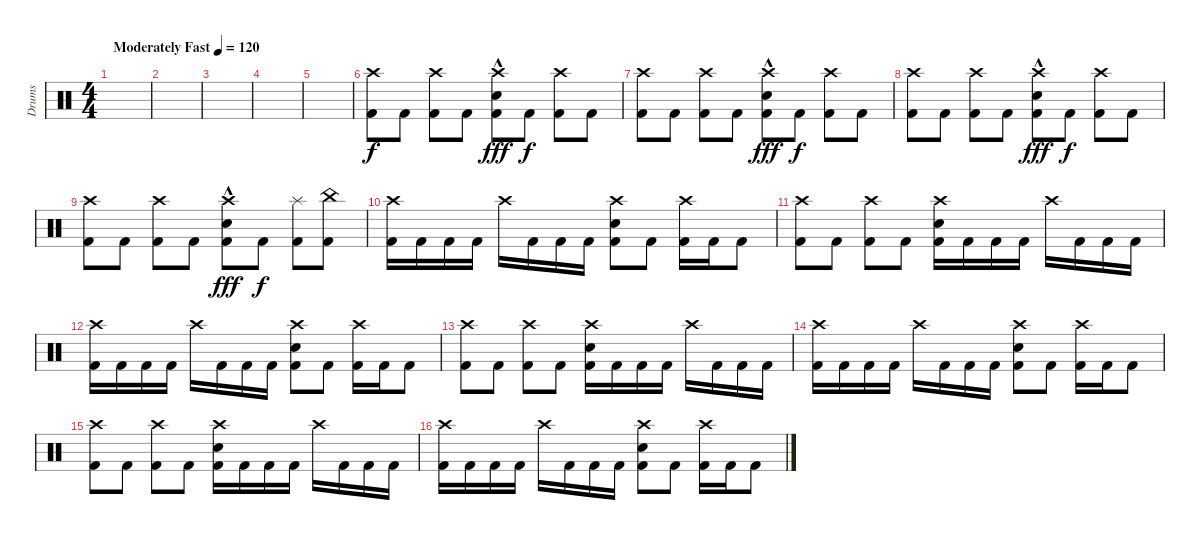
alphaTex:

\track ("Drums" "Drums") {instrument percussion}
\staff {score}
\articulation defaults
\ts (4 4)
\tempo (120 "Moderately Fast")
\clef neutral
\ks c
|
|
|
|
|
("Crash high (hit)" "Kick (hit) 2").8{volume 8} "Kick (hit) 2".8 ("Crash high (hit)" "Kick (hit) 2").8 "Kick (hit) 2".8 ("Crash high (hit)" "Electric Snare (hit)"{hac} "Kick (hit) 2").8{dy fff} "Kick (hit) 2".8{dy f} ("Crash high (hit)" "Kick (hit) 2").8 "Kick (hit) 2".8 |
("Crash high (hit)" "Kick (hit) 2").8 "Kick (hit) 2".8 ("Crash high (hit)" "Kick (hit) 2").8 "Kick (hit) 2".8 ("Crash high (hit)" "Electric Snare (hit)"{hac} "Kick (hit) 2").8{dy fff} "Kick (hit) 2".8{dy f} ("Crash high (hit)" "Kick (hit) 2").8 "Kick (hit) 2".8 |
("Crash high (hit)" "Kick (hit) 2").8 "Kick (hit) 2".8 ("Crash high (hit)" "Kick (hit) 2").8 "Kick (hit) 2".8 ("Crash high (hit)" "Electric Snare (hit)"{hac} "Kick (hit) 2").8{dy fff} "Kick (hit) 2".8{dy f} ("Crash high (hit)" "Kick (hit) 2").8 "Kick (hit) 2".8 |
("Crash high (hit)" "Kick (hit) 2").8 "Kick (hit) 2".8 ("Crash high (hit)" "Kick (hit) 2").8 "Kick (hit) 2".8 ("Crash high (hit)" "Electric Snare (hit)"{hac} "Kick (hit) 2").8{dy fff} "Kick (hit) 2".8{dy f} ("Splash (hit)" "Kick (hit) 2").8 ("China (hit)" "Kick (hit) 2").8 |
("Crash high (hit)" "Kick (hit) 2").16{volume 16} "Kick (hit) 2".16 "Kick (hit) 2".16 "Kick (hit) 2".16 "Crash high (hit)".16 "Kick (hit) 2".16 "Kick (hit) 2".16 "Kick (hit) 2".16 ("Crash high (hit)" "Electric Snare (hit)" "Kick (hit) 2").8 "Kick (hit) 2".8 ("Crash high (hit)" "Kick (hit) 2").16 "Kick (hit) 2".16 "Kick (hit) 2".8 |
("Crash high (hit)" "Kick (hit) 2").8 "Kick (hit) 2".8 ("Crash high (hit)" "Kick (hit) 2").8 "Kick (hit) 2".8 ("Crash high (hit)" "Electric Snare (hit)" "Kick (hit) 2").16 "Kick (hit) 2".16 "Kick (hit) 2".16 "Kick (hit) 2".16 "Crash high (hit)".16 "Kick (hit) 2".16 "Kick (hit) 2".16 "Kick (hit) 2".16 |
("Crash high (hit)" "Kick (hit) 2").16 "Kick (hit) 2".16 "Kick (hit) 2".16 "Kick (hit) 2".16 "Crash high (hit)".16 "Kick (hit) 2".16 "Kick (hit) 2".16 "Kick (hit) 2".16 ("Crash high (hit)" "Electric Snare (hit)" "Kick (hit) 2").8 "Kick (hit) 2".8 ("Crash high (hit)" "Kick (hit) 2").16 "Kick (hit) 2".16 "Kick (hit) 2".8 |
("Crash high (hit)" "Kick (hit) 2").8 "Kick (hit) 2".8 ("Crash high (hit)" "Kick (hit) 2").8 "Kick (hit) 2".8 ("Crash high (hit)" "Electric Snare (hit)" "Kick (hit) 2").16 "Kick (hit) 2".16 "Kick (hit) 2".16 "Kick (hit) 2".16 "Crash high (hit)".16 "Kick (hit) 2".16 "Kick (hit) 2".16 "Kick (hit) 2".16 |
("Crash high (hit)" "Kick (hit) 2").16 "Kick (hit) 2".16 "Kick (hit) 2".16 "Kick (hit) 2".16 "Crash high (hit)".16 "Kick (hit) 2".16 "Kick (hit) 2".16 "Kick (hit) 2".16 ("Crash high (hit)" "Electric Snare (hit)" "Kick (hit) 2").8 "Kick (hit) 2".8 ("Crash high (hit)" "Kick (hit) 2").16 "Kick (hit) 2".16 "Kick (hit) 2".8 |
("Crash high (hit)" "Kick (hit) 2").8 "Kick (hit) 2".8 ("Crash high (hit)" "Kick (hit) 2").8 "Kick (hit) 2".8 ("Crash high (hit)" "Electric Snare (hit)" "Kick (hit) 2").16 "Kick (hit) 2".16 "Kick (hit) 2".16 "Kick (hit) 2".16 "Crash high (hit)".16 "Kick (hit) 2".16 "Kick (hit) 2".16 "Kick (hit) 2".16 |
("Crash high (hit)" "Kick (hit) 2").16 "Kick (hit) 2".16 "Kick (hit) 2".16 "Kick (hit) 2".16 "Crash high (hit)".16 "Kick (hit) 2".16 "Kick (hit) 2".16 "Kick (hit) 2".16 ("Crash high (hit)" "Electric Snare (hit)" "Kick (hit) 2").8 "Kick (hit) 2".8 ("Crash high (hit)" "Kick (hit) 2").16 "Kick (hit) 2".16 "Kick (hit) 2".8
